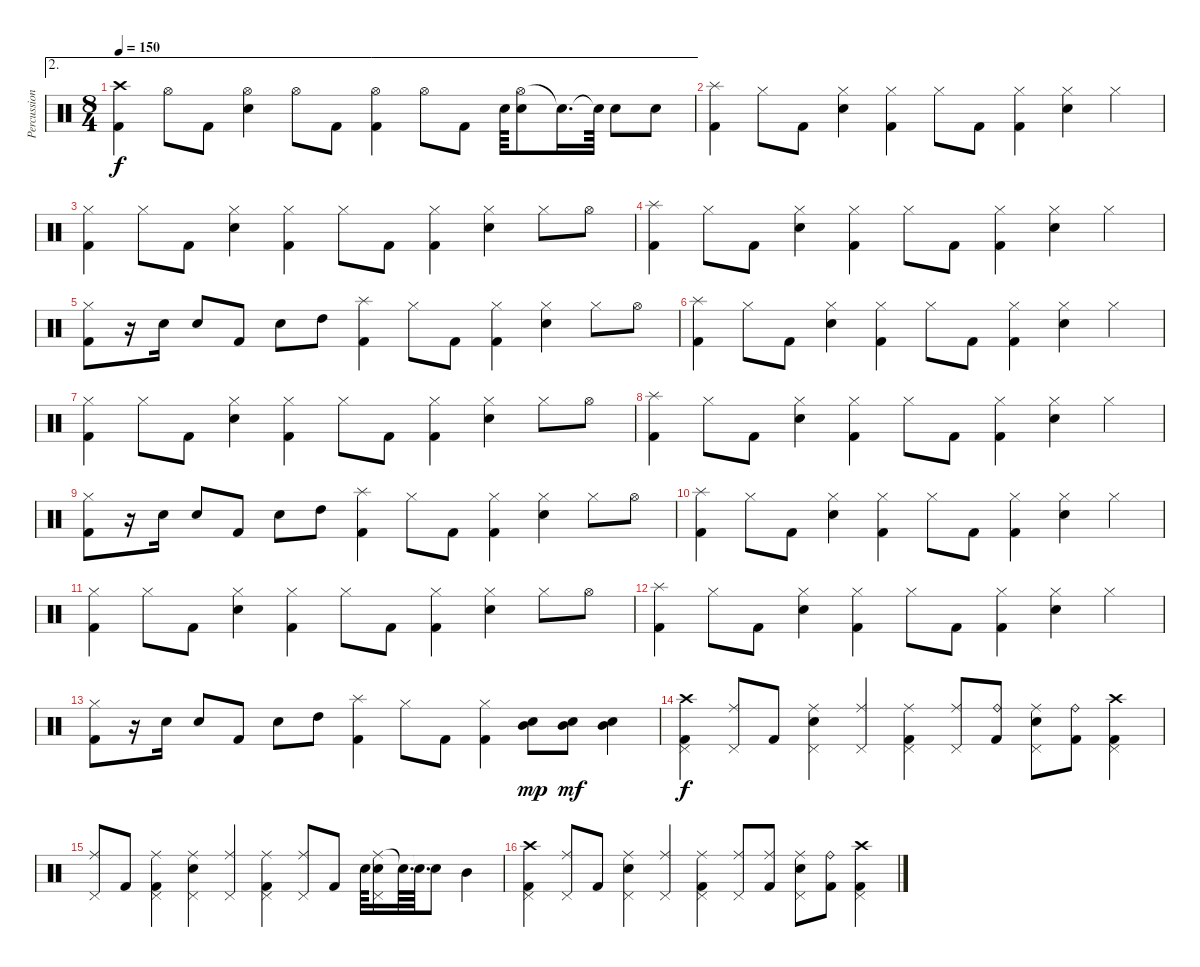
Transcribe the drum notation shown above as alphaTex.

\track ("Percussion" "Percussion") {instrument percussion}
\staff {score}
\articulation defaults
\ae 2
\ts (8 4)
\tempo 150
\clef neutral
\ks c
("Crash high (hit)" "Kick (hit) 2").4{dy f} "Hi-Hat (open)".8 "Kick (hit) 2".8 ("Hi-Hat (open)" "Electric Snare (hit)").4 "Hi-Hat (open)".8 "Kick (hit) 2".8 ("Hi-Hat (open)" "Kick (hit) 2").4 "Hi-Hat (open)".8 "Kick (hit) 2".8 "Electric Snare (hit)".64 ("Hi-Hat (open)" "Electric Snare (hit)").8 "Snare (hit)"{t}.16{d} "Snare (hit)"{t}.64 "Electric Snare (hit)".8 "Electric Snare (hit)".8 |
("Splash (hit)" "Kick (hit) 2").4 "Hi-Hat (closed)".8 "Kick (hit) 2".8 ("Hi-Hat (closed)" "Electric Snare (hit)").4 ("Hi-Hat (closed)" "Kick (hit) 2").4 "Hi-Hat (closed)".8 "Kick (hit) 2".8 ("Hi-Hat (closed)" "Kick (hit) 2").4 ("Hi-Hat (closed)" "Electric Snare (hit)").4 "Hi-Hat (closed)".4 |
("Hi-Hat (closed)" "Kick (hit) 2").4 "Hi-Hat (closed)".8 "Kick (hit) 2".8 ("Hi-Hat (closed)" "Electric Snare (hit)").4 ("Hi-Hat (closed)" "Kick (hit) 2").4 "Hi-Hat (closed)".8 "Kick (hit) 2".8 ("Hi-Hat (closed)" "Kick (hit) 2").4 ("Hi-Hat (closed)" "Electric Snare (hit)").4 "Hi-Hat (closed)".8 "Hi-Hat (open)".8 |
("Splash (hit)" "Kick (hit) 2").4 "Hi-Hat (closed)".8 "Kick (hit) 2".8 ("Hi-Hat (closed)" "Electric Snare (hit)").4 ("Hi-Hat (closed)" "Kick (hit) 2").4 "Hi-Hat (closed)".8 "Kick (hit) 2".8 ("Hi-Hat (closed)" "Kick (hit) 2").4 ("Hi-Hat (closed)" "Electric Snare (hit)").4 "Hi-Hat (closed)".4 |
("Hi-Hat (closed)" "Kick (hit) 2").8 r.16 "Electric Snare (hit)".16 "Electric Snare (hit)".8 "Kick (hit) 2".8 "Electric Snare (hit)".8 "High Tom (hit)".8 ("Splash (hit)" "Kick (hit) 2").4 "Hi-Hat (closed)".8 "Kick (hit) 2".8 ("Hi-Hat (closed)" "Kick (hit) 2").4 ("Hi-Hat (closed)" "Electric Snare (hit)").4 "Hi-Hat (closed)".8 "Hi-Hat (open)".8 |
("Splash (hit)" "Kick (hit) 2").4 "Hi-Hat (closed)".8 "Kick (hit) 2".8 ("Hi-Hat (closed)" "Electric Snare (hit)").4 ("Hi-Hat (closed)" "Kick (hit) 2").4 "Hi-Hat (closed)".8 "Kick (hit) 2".8 ("Hi-Hat (closed)" "Kick (hit) 2").4 ("Hi-Hat (closed)" "Electric Snare (hit)").4 "Hi-Hat (closed)".4 |
("Hi-Hat (closed)" "Kick (hit) 2").4 "Hi-Hat (closed)".8 "Kick (hit) 2".8 ("Hi-Hat (closed)" "Electric Snare (hit)").4 ("Hi-Hat (closed)" "Kick (hit) 2").4 "Hi-Hat (closed)".8 "Kick (hit) 2".8 ("Hi-Hat (closed)" "Kick (hit) 2").4 ("Hi-Hat (closed)" "Electric Snare (hit)").4 "Hi-Hat (closed)".8 "Hi-Hat (open)".8 |
("Splash (hit)" "Kick (hit) 2").4 "Hi-Hat (closed)".8 "Kick (hit) 2".8 ("Hi-Hat (closed)" "Electric Snare (hit)").4 ("Hi-Hat (closed)" "Kick (hit) 2").4 "Hi-Hat (closed)".8 "Kick (hit) 2".8 ("Hi-Hat (closed)" "Kick (hit) 2").4 ("Hi-Hat (closed)" "Electric Snare (hit)").4 "Hi-Hat (closed)".4 |
("Hi-Hat (closed)" "Kick (hit) 2").8 r.16 "Electric Snare (hit)".16 "Electric Snare (hit)".8 "Kick (hit) 2".8 "Electric Snare (hit)".8 "High Tom (hit)".8 ("Splash (hit)" "Kick (hit) 2").4 "Hi-Hat (closed)".8 "Kick (hit) 2".8 ("Hi-Hat (closed)" "Kick (hit) 2").4 ("Hi-Hat (closed)" "Electric Snare (hit)").4 "Hi-Hat (closed)".8 "Hi-Hat (open)".8 |
("Splash (hit)" "Kick (hit) 2").4 "Hi-Hat (closed)".8 "Kick (hit) 2".8 ("Hi-Hat (closed)" "Electric Snare (hit)").4 ("Hi-Hat (closed)" "Kick (hit) 2").4 "Hi-Hat (closed)".8 "Kick (hit) 2".8 ("Hi-Hat (closed)" "Kick (hit) 2").4 ("Hi-Hat (closed)" "Electric Snare (hit)").4 "Hi-Hat (closed)".4 |
("Hi-Hat (closed)" "Kick (hit) 2").4 "Hi-Hat (closed)".8 "Kick (hit) 2".8 ("Hi-Hat (closed)" "Electric Snare (hit)").4 ("Hi-Hat (closed)" "Kick (hit) 2").4 "Hi-Hat (closed)".8 "Kick (hit) 2".8 ("Hi-Hat (closed)" "Kick (hit) 2").4 ("Hi-Hat (closed)" "Electric Snare (hit)").4 "Hi-Hat (closed)".8 "Hi-Hat (open)".8 |
("Splash (hit)" "Kick (hit) 2").4 "Hi-Hat (closed)".8 "Kick (hit) 2".8 ("Hi-Hat (closed)" "Electric Snare (hit)").4 ("Hi-Hat (closed)" "Kick (hit) 2").4 "Hi-Hat (closed)".8 "Kick (hit) 2".8 ("Hi-Hat (closed)" "Kick (hit) 2").4 ("Hi-Hat (closed)" "Electric Snare (hit)").4 "Hi-Hat (closed)".4 |
("Hi-Hat (closed)" "Kick (hit) 2").8 r.16 "Electric Snare (hit)".16 "Electric Snare (hit)".8 "Kick (hit) 2".8 "Electric Snare (hit)".8 "High Tom (hit)".8 ("Splash (hit)" "Kick (hit) 2").4 "Hi-Hat (closed)".8 "Kick (hit) 2".8 ("Hi-Hat (closed)" "Kick (hit) 2").4 ("Mid Tom (hit)" "Electric Snare (hit)").8{dy mp} ("Mid Tom (hit)" "Electric Snare (hit)").8{dy mf} ("Mid Tom (hit)" "Electric Snare (hit)").4 |
("Crash high (hit)" "Pedal Hi-Hat (hit)" "Kick (hit) 2").4{dy f} ("Ride (middle)" "Pedal Hi-Hat (hit)").8 "Kick (hit) 2".8 ("Ride (middle)" "Pedal Hi-Hat (hit)" "Electric Snare (hit)").4 ("Ride (middle)" "Pedal Hi-Hat (hit)").4 ("Ride (middle)" "Pedal Hi-Hat (hit)" "Kick (hit) 2").4 ("Ride (middle)" "Pedal Hi-Hat (hit)").8 ("Ride (bell)" "Kick (hit) 2").8 ("Ride (middle)" "Pedal Hi-Hat (hit)" "Electric Snare (hit)").8 ("Ride (bell)" "Kick (hit) 2").8 ("Crash high (hit)" "Pedal Hi-Hat (hit)" "Kick (hit) 2").4 |
("Ride (middle)" "Pedal Hi-Hat (hit)").8 "Kick (hit) 2".8 ("Ride (middle)" "Pedal Hi-Hat (hit)" "Kick (hit) 2").4 ("Ride (middle)" "Pedal Hi-Hat (hit)" "Electric Snare (hit)").4 ("Ride (middle)" "Pedal Hi-Hat (hit)").4 ("Ride (middle)" "Pedal Hi-Hat (hit)" "Kick (hit) 2").4 ("Ride (middle)" "Pedal Hi-Hat (hit)").8 "Kick (hit) 2".8 "Electric Snare (hit)".64 ("Ride (middle)" "Pedal Hi-Hat (hit)" "Electric Snare (hit)").16 "Snare (hit)"{t}.64{d} "Snare (hit)"{t}.64{d} "Electric Snare (hit)".8 "Mid Tom (hit)".4 |
("Crash high (hit)" "Pedal Hi-Hat (hit)" "Kick (hit) 2").4 ("Ride (middle)" "Pedal Hi-Hat (hit)").8 "Kick (hit) 2".8 ("Ride (middle)" "Pedal Hi-Hat (hit)" "Electric Snare (hit)").4 ("Ride (middle)" "Pedal Hi-Hat (hit)").4 ("Ride (middle)" "Pedal Hi-Hat (hit)" "Kick (hit) 2").4 ("Ride (middle)" "Pedal Hi-Hat (hit)").8 ("Ride (middle)" "Kick (hit) 2").8 ("Ride (middle)" "Pedal Hi-Hat (hit)" "Electric Snare (hit)").8 ("Ride (bell)" "Kick (hit) 2").8 ("Crash high (hit)" "Pedal Hi-Hat (hit)" "Kick (hit) 2").4
